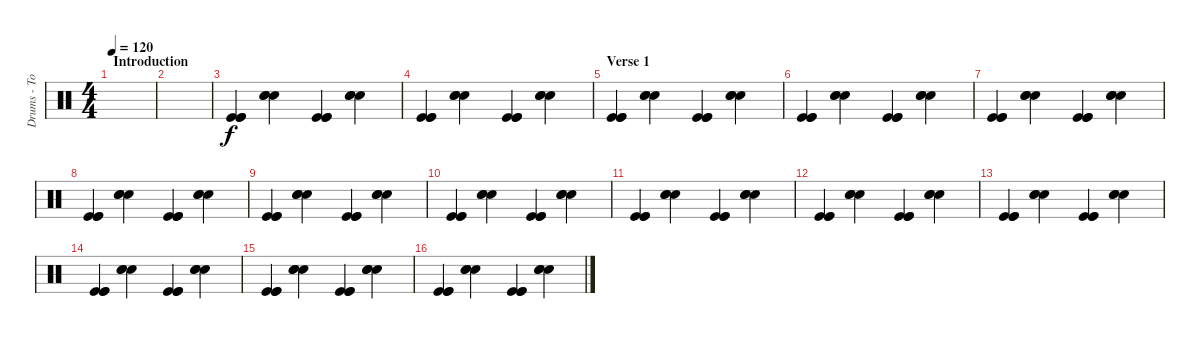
\track ("Drums - Tom" "Drums - To") {instrument percussion}
\staff {score}
\articulation defaults
\ts (4 4)
\section ("" "Introduction")
\tempo 120
\clef neutral
\ks c
|
|
("Kick (hit)" "Kick (hit)" "Kick (hit)").4 ("Snare (hit) 2" "Snare (hit) 2" "Snare (hit) 2").4 ("Kick (hit)" "Kick (hit)" "Kick (hit)").4 ("Snare (hit) 2" "Snare (hit) 2" "Snare (hit) 2").4 |
("Kick (hit)" "Kick (hit)" "Kick (hit)").4 ("Snare (hit) 2" "Snare (hit) 2" "Snare (hit) 2").4 ("Kick (hit)" "Kick (hit)" "Kick (hit)").4 ("Snare (hit) 2" "Snare (hit) 2" "Snare (hit) 2").4 |
\section ("" "Verse 1")
("Kick (hit)" "Kick (hit)" "Kick (hit)").4 ("Snare (hit) 2" "Snare (hit) 2" "Snare (hit) 2").4 ("Kick (hit)" "Kick (hit)" "Kick (hit)").4 ("Snare (hit) 2" "Snare (hit) 2" "Snare (hit) 2").4 |
("Kick (hit)" "Kick (hit)" "Kick (hit)").4 ("Snare (hit) 2" "Snare (hit) 2" "Snare (hit) 2").4 ("Kick (hit)" "Kick (hit)" "Kick (hit)").4 ("Snare (hit) 2" "Snare (hit) 2" "Snare (hit) 2").4 |
("Kick (hit)" "Kick (hit)" "Kick (hit)").4 ("Snare (hit) 2" "Snare (hit) 2" "Snare (hit) 2").4 ("Kick (hit)" "Kick (hit)" "Kick (hit)").4 ("Snare (hit) 2" "Snare (hit) 2" "Snare (hit) 2").4 |
("Kick (hit)" "Kick (hit)" "Kick (hit)").4 ("Snare (hit) 2" "Snare (hit) 2" "Snare (hit) 2").4 ("Kick (hit)" "Kick (hit)" "Kick (hit)").4 ("Snare (hit) 2" "Snare (hit) 2" "Snare (hit) 2").4 |
("Kick (hit)" "Kick (hit)" "Kick (hit)").4 ("Snare (hit) 2" "Snare (hit) 2" "Snare (hit) 2").4 ("Kick (hit)" "Kick (hit)" "Kick (hit)").4 ("Snare (hit) 2" "Snare (hit) 2" "Snare (hit) 2").4 |
("Kick (hit)" "Kick (hit)" "Kick (hit)").4 ("Snare (hit) 2" "Snare (hit) 2" "Snare (hit) 2").4 ("Kick (hit)" "Kick (hit)" "Kick (hit)").4 ("Snare (hit) 2" "Snare (hit) 2" "Snare (hit) 2").4 |
("Kick (hit)" "Kick (hit)" "Kick (hit)").4 ("Snare (hit) 2" "Snare (hit) 2" "Snare (hit) 2").4 ("Kick (hit)" "Kick (hit)" "Kick (hit)").4 ("Snare (hit) 2" "Snare (hit) 2" "Snare (hit) 2").4 |
("Kick (hit)" "Kick (hit)" "Kick (hit)").4 ("Snare (hit) 2" "Snare (hit) 2" "Snare (hit) 2").4 ("Kick (hit)" "Kick (hit)" "Kick (hit)").4 ("Snare (hit) 2" "Snare (hit) 2" "Snare (hit) 2").4 |
("Kick (hit)" "Kick (hit)" "Kick (hit)").4 ("Snare (hit) 2" "Snare (hit) 2" "Snare (hit) 2").4 ("Kick (hit)" "Kick (hit)" "Kick (hit)").4 ("Snare (hit) 2" "Snare (hit) 2" "Snare (hit) 2").4 |
("Kick (hit)" "Kick (hit)" "Kick (hit)").4 ("Snare (hit) 2" "Snare (hit) 2" "Snare (hit) 2").4 ("Kick (hit)" "Kick (hit)" "Kick (hit)").4 ("Snare (hit) 2" "Snare (hit) 2" "Snare (hit) 2").4 |
("Kick (hit)" "Kick (hit)" "Kick (hit)").4 ("Snare (hit) 2" "Snare (hit) 2" "Snare (hit) 2").4 ("Kick (hit)" "Kick (hit)" "Kick (hit)").4 ("Snare (hit) 2" "Snare (hit) 2" "Snare (hit) 2").4 |
("Kick (hit)" "Kick (hit)" "Kick (hit)").4 ("Snare (hit) 2" "Snare (hit) 2" "Snare (hit) 2").4 ("Kick (hit)" "Kick (hit)" "Kick (hit)").4 ("Snare (hit) 2" "Snare (hit) 2" "Snare (hit) 2").4
